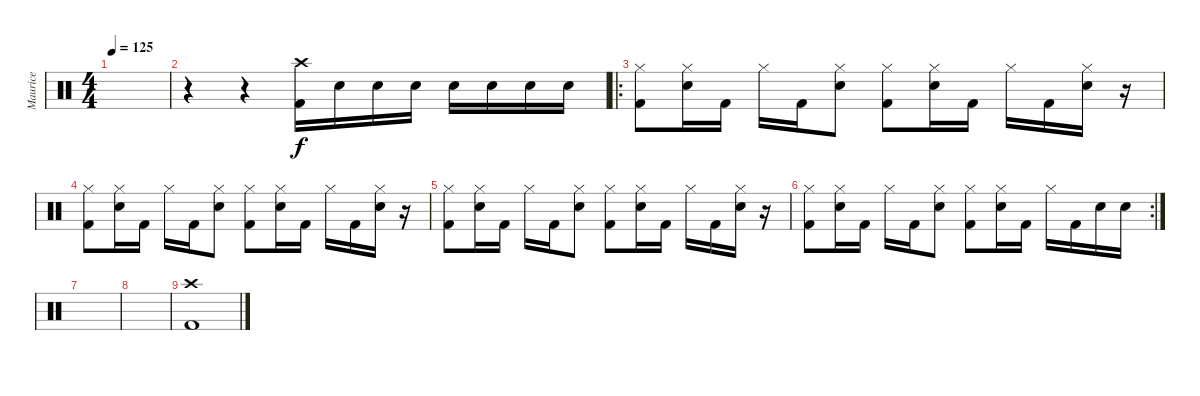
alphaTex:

\track ("Maurice" "Maurice") {instrument percussion}
\staff {score}
\articulation defaults
\ts (4 4)
\tempo 125
\clef neutral
\ks c
|
r.4 r.4 ("Crash high (hit)" "Kick (hit) 2").16 "Snare (hit) 2".16 "Snare (hit) 2".16 "Snare (hit) 2".16 "Snare (hit) 2".16 "Snare (hit) 2".16 "Snare (hit) 2".16 "Snare (hit) 2".16 |
\ro
("Hi-Hat (closed)" "Kick (hit) 2").8 ("Hi-Hat (closed)" "Snare (hit) 2").16 "Kick (hit) 2".16 "Hi-Hat (closed)".16 "Kick (hit) 2".16 ("Hi-Hat (closed)" "Snare (hit) 2").8 ("Hi-Hat (closed)" "Kick (hit) 2").8 ("Hi-Hat (closed)" "Snare (hit) 2").16 "Kick (hit) 2".16 "Hi-Hat (closed)".16 "Kick (hit) 2".16 ("Hi-Hat (closed)" "Snare (hit) 2").16 r.16 |
("Hi-Hat (closed)" "Kick (hit) 2").8 ("Hi-Hat (closed)" "Snare (hit) 2").16 "Kick (hit) 2".16 "Hi-Hat (closed)".16 "Kick (hit) 2".16 ("Hi-Hat (closed)" "Snare (hit) 2").8 ("Hi-Hat (closed)" "Kick (hit) 2").8 ("Hi-Hat (closed)" "Snare (hit) 2").16 "Kick (hit) 2".16 "Hi-Hat (closed)".16 "Kick (hit) 2".16 ("Hi-Hat (closed)" "Snare (hit) 2").16 r.16 |
("Hi-Hat (closed)" "Kick (hit) 2").8 ("Hi-Hat (closed)" "Snare (hit) 2").16 "Kick (hit) 2".16 "Hi-Hat (closed)".16 "Kick (hit) 2".16 ("Hi-Hat (closed)" "Snare (hit) 2").8 ("Hi-Hat (closed)" "Kick (hit) 2").8 ("Hi-Hat (closed)" "Snare (hit) 2").16 "Kick (hit) 2".16 "Hi-Hat (closed)".16 "Kick (hit) 2".16 ("Hi-Hat (closed)" "Snare (hit) 2").16 r.16 |
\rc 2
("Hi-Hat (closed)" "Kick (hit) 2").8 ("Hi-Hat (closed)" "Snare (hit) 2").16 "Kick (hit) 2".16 "Hi-Hat (closed)".16 "Kick (hit) 2".16 ("Hi-Hat (closed)" "Snare (hit) 2").8 ("Hi-Hat (closed)" "Kick (hit) 2").8 ("Hi-Hat (closed)" "Snare (hit) 2").16 "Kick (hit) 2".16 "Hi-Hat (closed)".16 "Kick (hit) 2".16 "Snare (hit) 2".16 "Snare (hit) 2".16 |
|
|
("Crash high (hit)" "Kick (hit) 2").1
